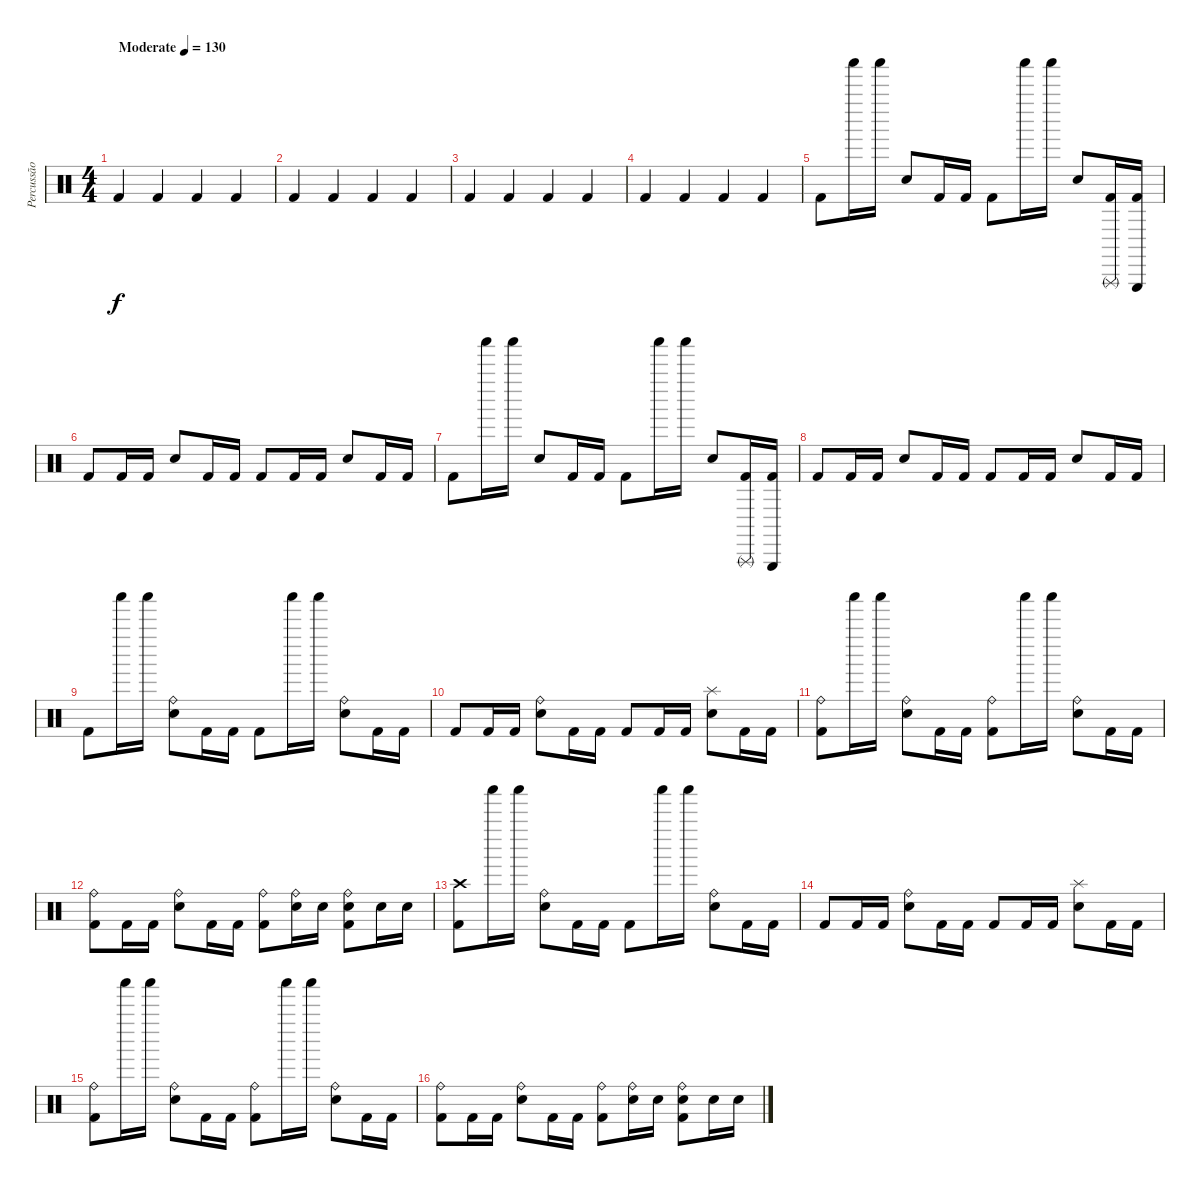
\track ("Percussão" "Percussão") {instrument percussion}
\staff {score}
\articulation defaults
\ts (4 4)
\tempo (130 "Moderate")
\clef neutral
\ks c "Kick (hit) 2".4{dy f} "Kick (hit) 2".4 "Kick (hit) 2".4 "Kick (hit) 2".4
|
"Kick (hit) 2".4 "Kick (hit) 2".4 "Kick (hit) 2".4 "Kick (hit) 2".4 |
"Kick (hit) 2".4 "Kick (hit) 2".4 "Kick (hit) 2".4 "Kick (hit) 2".4 |
"Kick (hit) 2".4 "Kick (hit) 2".4 "Kick (hit) 2".4 "Kick (hit) 2".4 |
"Kick (hit) 2".8 "Shaker (hit)".16 "Shaker (hit)".16 "Electric Snare (hit)".8 "Kick (hit) 2".16 "Kick (hit) 2".16 "Kick (hit) 2".8 "Shaker (hit)".16 "Shaker (hit)".16 "Electric Snare (hit)".8 ("Kick (hit) 2" "Triangle (rnute)").16 ("Kick (hit) 2" "Triangle (hit)").16 |
"Kick (hit) 2".8 "Kick (hit) 2".16 "Kick (hit) 2".16 "Electric Snare (hit)".8 "Kick (hit) 2".16 "Kick (hit) 2".16 "Kick (hit) 2".8 "Kick (hit) 2".16 "Kick (hit) 2".16 "Electric Snare (hit)".8 "Kick (hit) 2".16 "Kick (hit) 2".16 |
"Kick (hit) 2".8 "Shaker (hit)".16 "Shaker (hit)".16 "Electric Snare (hit)".8 "Kick (hit) 2".16 "Kick (hit) 2".16 "Kick (hit) 2".8 "Shaker (hit)".16 "Shaker (hit)".16 "Electric Snare (hit)".8 ("Kick (hit) 2" "Triangle (rnute)").16 ("Kick (hit) 2" "Triangle (hit)").16 |
"Kick (hit) 2".8 "Kick (hit) 2".16 "Kick (hit) 2".16 "Electric Snare (hit)".8 "Kick (hit) 2".16 "Kick (hit) 2".16 "Kick (hit) 2".8 "Kick (hit) 2".16 "Kick (hit) 2".16 "Electric Snare (hit)".8 "Kick (hit) 2".16 "Kick (hit) 2".16 |
"Kick (hit) 2".8 "Shaker (hit)".16 "Shaker (hit)".16 ("Ride (bell)" "Electric Snare (hit)").8 "Kick (hit) 2".16 "Kick (hit) 2".16 "Kick (hit) 2".8 "Shaker (hit)".16 "Shaker (hit)".16 ("Ride (bell)" "Electric Snare (hit)").8 "Kick (hit) 2".16 "Kick (hit) 2".16 |
"Kick (hit) 2".8 "Kick (hit) 2".16 "Kick (hit) 2".16 ("Ride (bell)" "Electric Snare (hit)").8 "Kick (hit) 2".16 "Kick (hit) 2".16 "Kick (hit) 2".8 "Kick (hit) 2".16 "Kick (hit) 2".16 ("Splash (hit)" "Electric Snare (hit)").8 "Kick (hit) 2".16 "Kick (hit) 2".16 |
("Ride (bell)" "Kick (hit) 2").8 "Shaker (hit)".16 "Shaker (hit)".16 ("Ride (bell)" "Electric Snare (hit)").8 "Kick (hit) 2".16 "Kick (hit) 2".16 ("Ride (bell)" "Kick (hit) 2").8 "Shaker (hit)".16 "Shaker (hit)".16 ("Ride (bell)" "Electric Snare (hit)").8 "Kick (hit) 2".16 "Kick (hit) 2".16 |
("Ride (bell)" "Kick (hit) 2").8 "Kick (hit) 2".16 "Kick (hit) 2".16 ("Ride (bell)" "Electric Snare (hit)").8 "Kick (hit) 2".16 "Kick (hit) 2".16 ("Ride (bell)" "Kick (hit) 2").8 ("Ride (bell)" "Electric Snare (hit)").16 "Electric Snare (hit)".16 ("Ride (bell)" "Electric Snare (hit)" "Kick (hit) 2").8 "Electric Snare (hit)".16 "Electric Snare (hit)".16 |
("Crash high (hit)" "Kick (hit) 2").8 "Shaker (hit)".16 "Shaker (hit)".16 ("Ride (bell)" "Electric Snare (hit)").8 "Kick (hit) 2".16 "Kick (hit) 2".16 "Kick (hit) 2".8 "Shaker (hit)".16 "Shaker (hit)".16 ("Ride (bell)" "Electric Snare (hit)").8 "Kick (hit) 2".16 "Kick (hit) 2".16 |
"Kick (hit) 2".8 "Kick (hit) 2".16 "Kick (hit) 2".16 ("Ride (bell)" "Electric Snare (hit)").8 "Kick (hit) 2".16 "Kick (hit) 2".16 "Kick (hit) 2".8 "Kick (hit) 2".16 "Kick (hit) 2".16 ("Splash (hit)" "Electric Snare (hit)").8 "Kick (hit) 2".16 "Kick (hit) 2".16 |
("Ride (bell)" "Kick (hit) 2").8 "Shaker (hit)".16 "Shaker (hit)".16 ("Ride (bell)" "Electric Snare (hit)").8 "Kick (hit) 2".16 "Kick (hit) 2".16 ("Ride (bell)" "Kick (hit) 2").8 "Shaker (hit)".16 "Shaker (hit)".16 ("Ride (bell)" "Electric Snare (hit)").8 "Kick (hit) 2".16 "Kick (hit) 2".16 |
("Ride (bell)" "Kick (hit) 2").8 "Kick (hit) 2".16 "Kick (hit) 2".16 ("Ride (bell)" "Electric Snare (hit)").8 "Kick (hit) 2".16 "Kick (hit) 2".16 ("Ride (bell)" "Kick (hit) 2").8 ("Ride (bell)" "Electric Snare (hit)").16 "Electric Snare (hit)".16 ("Ride (bell)" "Electric Snare (hit)" "Kick (hit) 2").8 "Electric Snare (hit)".16 "Electric Snare (hit)".16
